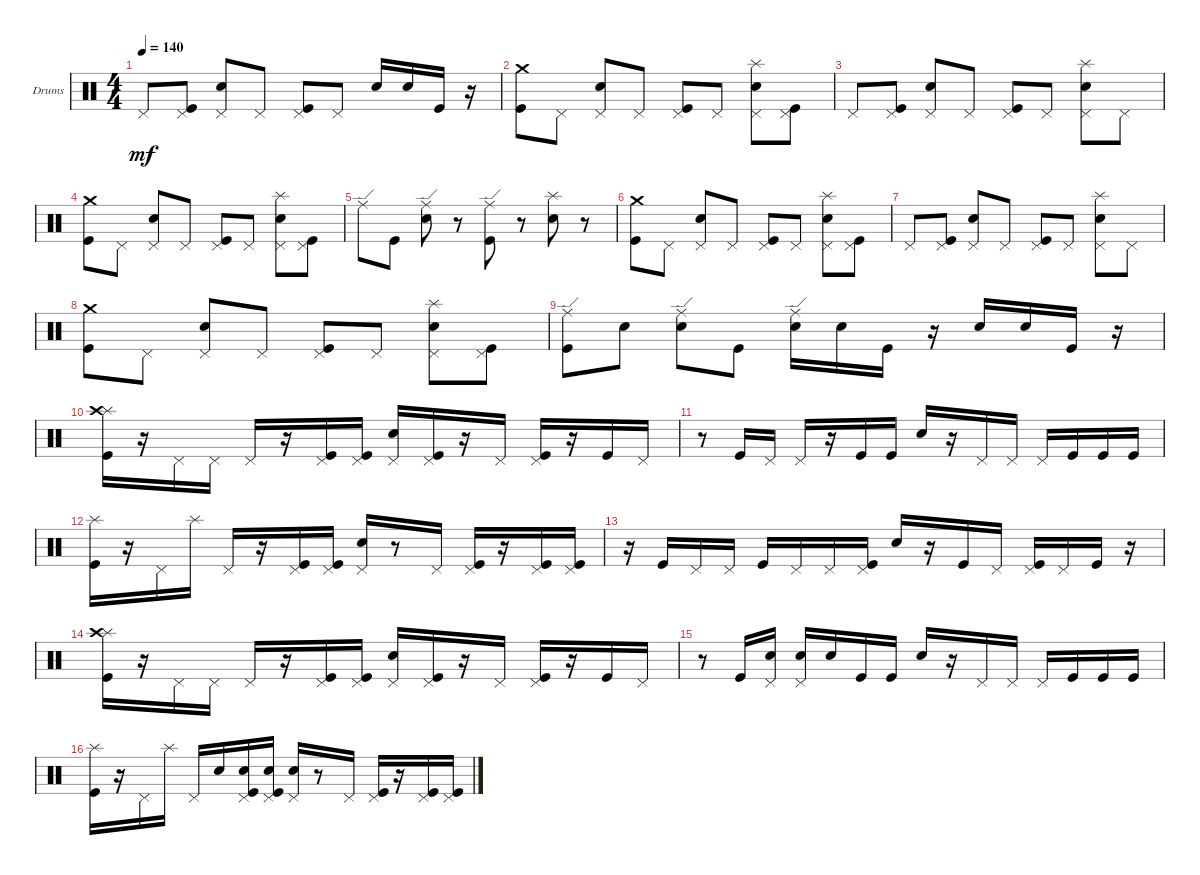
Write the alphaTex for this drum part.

\bracketExtendMode groupsimilarinstruments
\firstSystemTrackNameOrientation horizontal
\otherSystemsTrackNameOrientation horizontal
\track ("Drumkit" "Drums") {instrument percussion}
\staff {score}
\articulation defaults
\ts (4 4)
\tempo 140
\clef neutral
\scale
0.333333
\ks c "Pedal Hi-Hat (hit)".8{dy mf}
("Kick (hit)" "Pedal Hi-Hat (hit)").8 ("Snare (hit) 2" "Pedal Hi-Hat (hit)").8 "Pedal Hi-Hat (hit)".8 ("Kick (hit)" "Pedal Hi-Hat (hit)").8 "Pedal Hi-Hat (hit)".8 "Snare (hit) 2".16 "Snare (hit) 2".16 "Kick (hit)".16 r.16 |
\scale
0.333333 ("Kick (hit)" "Crash medium (hit)").8 "Pedal Hi-Hat (hit)".8 ("Snare (hit) 2" "Pedal Hi-Hat (hit)").8 "Pedal Hi-Hat (hit)".8 ("Kick (hit)" "Pedal Hi-Hat (hit)").8 "Pedal Hi-Hat (hit)".8 ("Snare (hit) 2" "Pedal Hi-Hat (hit)" "Splash (hit)").8 ("Kick (hit)" "Pedal Hi-Hat (hit)").8 |
\scale
0.333333 "Pedal Hi-Hat (hit)".8 ("Kick (hit)" "Pedal Hi-Hat (hit)").8 ("Snare (hit) 2" "Pedal Hi-Hat (hit)").8 "Pedal Hi-Hat (hit)".8 ("Kick (hit)" "Pedal Hi-Hat (hit)").8 "Pedal Hi-Hat (hit)".8 ("Snare (hit) 2" "Pedal Hi-Hat (hit)" "Splash (hit)").8 "Pedal Hi-Hat (hit)".8 |
\scale
0.333333 ("Kick (hit)" "Crash medium (hit)").8 "Pedal Hi-Hat (hit)".8 ("Snare (hit) 2" "Pedal Hi-Hat (hit)").8 "Pedal Hi-Hat (hit)".8 ("Kick (hit)" "Pedal Hi-Hat (hit)").8 "Pedal Hi-Hat (hit)".8 ("Snare (hit) 2" "Pedal Hi-Hat (hit)" "Splash (hit)").8 ("Kick (hit)" "Pedal Hi-Hat (hit)").8 |
\scale
0.333333 "Ride (edge)".8 "Kick (hit)".8 ("Snare (hit) 2" "Ride (edge)").8 r.8 ("Kick (hit)" "Ride (edge)").8 r.8 ("Snare (hit) 2" "Splash (hit)").8 r.8 |
\scale
0.333333 ("Kick (hit)" "Crash medium (hit)").8 "Pedal Hi-Hat (hit)".8 ("Snare (hit) 2" "Pedal Hi-Hat (hit)").8 "Pedal Hi-Hat (hit)".8 ("Kick (hit)" "Pedal Hi-Hat (hit)").8 "Pedal Hi-Hat (hit)".8 ("Snare (hit) 2" "Pedal Hi-Hat (hit)" "Splash (hit)").8 ("Kick (hit)" "Pedal Hi-Hat (hit)").8 |
\scale
0.333333 "Pedal Hi-Hat (hit)".8 ("Kick (hit)" "Pedal Hi-Hat (hit)").8 ("Snare (hit) 2" "Pedal Hi-Hat (hit)").8 "Pedal Hi-Hat (hit)".8 ("Kick (hit)" "Pedal Hi-Hat (hit)").8 "Pedal Hi-Hat (hit)".8 ("Snare (hit) 2" "Pedal Hi-Hat (hit)" "Splash (hit)").8 "Pedal Hi-Hat (hit)".8 |
\scale
0.333333 ("Kick (hit)" "Crash medium (hit)").8 "Pedal Hi-Hat (hit)".8 ("Snare (hit) 2" "Pedal Hi-Hat (hit)").8 "Pedal Hi-Hat (hit)".8 ("Kick (hit)" "Pedal Hi-Hat (hit)").8 "Pedal Hi-Hat (hit)".8 ("Snare (hit) 2" "Pedal Hi-Hat (hit)" "Splash (hit)").8 ("Kick (hit)" "Pedal Hi-Hat (hit)").8 |
\scale
0.333333 ("Kick (hit)" "Ride (edge)").8 "Snare (hit) 2".8 ("Snare (hit) 2" "Ride (edge)").8 "Kick (hit)".8 ("Snare (hit) 2" "Ride (edge)").16 "Snare (hit) 2".16 "Kick (hit)".16 r.16 "Snare (hit) 2".16 "Snare (hit) 2".16 "Kick (hit)".16 r.16 |
\scale
0.333333 ("Kick (hit)" "Splash (hit)" "Crash high (hit)").16 r.16 "Pedal Hi-Hat (hit)".16 "Pedal Hi-Hat (hit)".16 "Pedal Hi-Hat (hit)".16 r.16 ("Kick (hit)" "Pedal Hi-Hat (hit)").16 ("Kick (hit)" "Pedal Hi-Hat (hit)").16 ("Snare (hit) 2" "Pedal Hi-Hat (hit)").16 ("Kick (hit)" "Pedal Hi-Hat (hit)").16 r.16 "Pedal Hi-Hat (hit)".16 ("Kick (hit)" "Pedal Hi-Hat (hit)").16 r.16 "Kick (hit)".16 "Pedal Hi-Hat (hit)".16 |
\scale
0.333333 r.8 "Kick (hit)".16 "Pedal Hi-Hat (hit)".16 "Pedal Hi-Hat (hit)".16 r.16 "Kick (hit)".16 "Kick (hit)".16 "Snare (hit) 2".16 r.16 "Pedal Hi-Hat (hit)".16 "Pedal Hi-Hat (hit)".16 "Pedal Hi-Hat (hit)".16 "Kick (hit)".16 "Kick (hit)".16 "Kick (hit)".16 |
\scale
0.333333 ("Kick (hit)" "Splash (hit)").16 r.16 "Pedal Hi-Hat (hit)".16 "Splash (hit)".16 "Pedal Hi-Hat (hit)".16 r.16 ("Kick (hit)" "Pedal Hi-Hat (hit)").16 ("Kick (hit)" "Pedal Hi-Hat (hit)").16 ("Snare (hit) 2" "Pedal Hi-Hat (hit)").16 r.8 "Pedal Hi-Hat (hit)".16 ("Kick (hit)" "Pedal Hi-Hat (hit)").16 r.16 ("Kick (hit)" "Pedal Hi-Hat (hit)").16 ("Kick (hit)" "Pedal Hi-Hat (hit)").16 |
\scale
0.333333 r.16 "Kick (hit)".16 "Pedal Hi-Hat (hit)".16 "Pedal Hi-Hat (hit)".16 "Kick (hit)".16 "Pedal Hi-Hat (hit)".16 "Pedal Hi-Hat (hit)".16 ("Kick (hit)" "Pedal Hi-Hat (hit)").16 "Snare (hit) 2".16 r.16 "Kick (hit)".16 "Pedal Hi-Hat (hit)".16 ("Kick (hit)" "Pedal Hi-Hat (hit)").16 "Pedal Hi-Hat (hit)".16 "Kick (hit)".16 r.16 |
\scale
0.333333 ("Kick (hit)" "Splash (hit)" "Crash high (hit)").16 r.16 "Pedal Hi-Hat (hit)".16 "Pedal Hi-Hat (hit)".16 "Pedal Hi-Hat (hit)".16 r.16 ("Kick (hit)" "Pedal Hi-Hat (hit)").16 ("Kick (hit)" "Pedal Hi-Hat (hit)").16 ("Snare (hit) 2" "Pedal Hi-Hat (hit)").16 ("Kick (hit)" "Pedal Hi-Hat (hit)").16 r.16 "Pedal Hi-Hat (hit)".16 ("Kick (hit)" "Pedal Hi-Hat (hit)").16 r.16 "Kick (hit)".16 "Pedal Hi-Hat (hit)".16 |
\scale
0.333333 r.8 "Kick (hit)".16 ("Snare (hit) 2" "Pedal Hi-Hat (hit)").16 ("Snare (hit) 2" "Pedal Hi-Hat (hit)").16 "Snare (hit) 2".16 "Kick (hit)".16 "Kick (hit)".16 "Snare (hit) 2".16 r.16 "Pedal Hi-Hat (hit)".16 "Pedal Hi-Hat (hit)".16 "Pedal Hi-Hat (hit)".16 "Kick (hit)".16 "Kick (hit)".16 "Kick (hit)".16 |
\scale
0.333333 ("Kick (hit)" "Splash (hit)").16 r.16 "Pedal Hi-Hat (hit)".16 "Splash (hit)".16 "Pedal Hi-Hat (hit)".16 "Snare (hit) 2".16 ("Kick (hit)" "Snare (hit) 2" "Pedal Hi-Hat (hit)").16 ("Kick (hit)" "Snare (hit) 2" "Pedal Hi-Hat (hit)").16 ("Snare (hit) 2" "Pedal Hi-Hat (hit)").16 r.8 "Pedal Hi-Hat (hit)".16 ("Kick (hit)" "Pedal Hi-Hat (hit)").16 r.16 ("Kick (hit)" "Pedal Hi-Hat (hit)").16 ("Kick (hit)" "Pedal Hi-Hat (hit)").16
